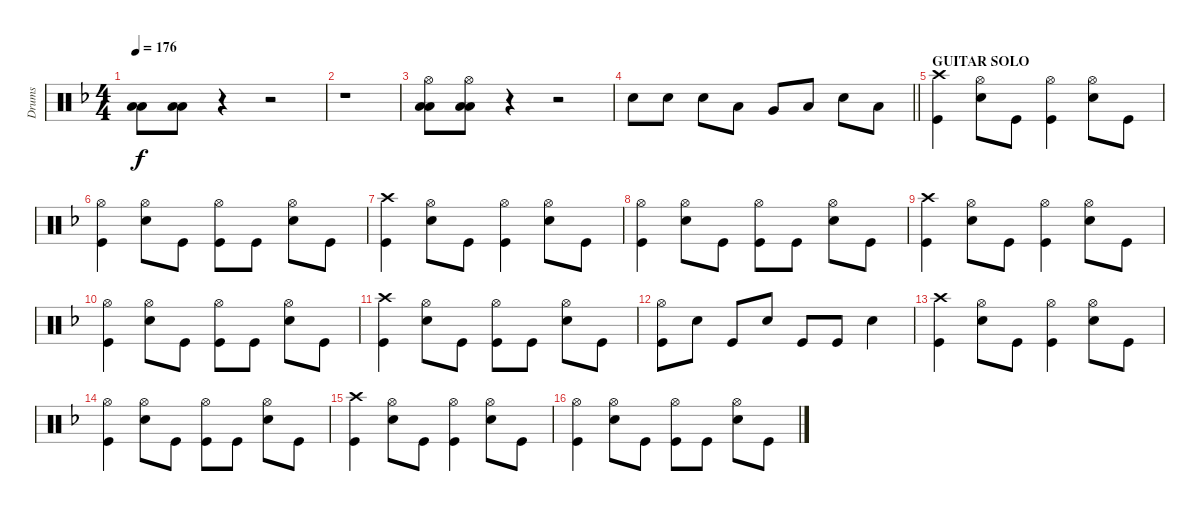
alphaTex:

\track ("Drums" "Drums") {instrument percussion}
\staff {score}
\articulation defaults
\ts (4 4)
\tempo 176
\clef neutral
\ks f
("Low Tom (hit)" "Low Floor Tom (hit)").8{dy f beam Down} ("Low Tom (hit)" "Low Floor Tom (hit)").8{beam Down} r.4 r.2 |
r.1 |
("Hi-Hat (open)" "Low Tom (hit)" "Low Floor Tom (hit)").8 ("Hi-Hat (open)" "Low Tom (hit)" "Low Floor Tom (hit)").8 r.4 r.2 |
\barLineRight lightlight "Snare (hit) 2".8 "Snare (hit) 2".8 "Snare (hit) 2".8 "Low Tom (hit)".8 "Very Low Tom (hit)".8 "Low Floor Tom (hit)".8 "Snare (hit) 2".8 "Low Floor Tom (hit)".8
|
\section ("" "GUITAR SOLO")
("Crash high (hit)" "Kick (hit)").4 ("Hi-Hat (open)" "Snare (hit) 2").8 "Kick (hit)".8 ("Hi-Hat (open)" "Kick (hit)").4 ("Hi-Hat (open)" "Snare (hit) 2").8 "Kick (hit)".8 |
("Hi-Hat (open)" "Kick (hit)").4 ("Hi-Hat (open)" "Snare (hit) 2").8 "Kick (hit)".8 ("Hi-Hat (open)" "Kick (hit)").8 "Kick (hit)".8 ("Hi-Hat (open)" "Snare (hit) 2").8 "Kick (hit)".8 |
("Crash high (hit)" "Kick (hit)").4 ("Hi-Hat (open)" "Snare (hit) 2").8 "Kick (hit)".8 ("Hi-Hat (open)" "Kick (hit)").4 ("Hi-Hat (open)" "Snare (hit) 2").8 "Kick (hit)".8 |
("Hi-Hat (open)" "Kick (hit)").4 ("Hi-Hat (open)" "Snare (hit) 2").8 "Kick (hit)".8 ("Hi-Hat (open)" "Kick (hit)").8 "Kick (hit)".8 ("Hi-Hat (open)" "Snare (hit) 2").8 "Kick (hit)".8 |
("Crash high (hit)" "Kick (hit)").4 ("Hi-Hat (open)" "Snare (hit) 2").8 "Kick (hit)".8 ("Hi-Hat (open)" "Kick (hit)").4 ("Hi-Hat (open)" "Snare (hit) 2").8 "Kick (hit)".8 |
("Hi-Hat (open)" "Kick (hit)").4 ("Hi-Hat (open)" "Snare (hit) 2").8 "Kick (hit)".8 ("Hi-Hat (open)" "Kick (hit)").8 "Kick (hit)".8 ("Hi-Hat (open)" "Snare (hit) 2").8 "Kick (hit)".8 |
("Crash high (hit)" "Kick (hit)").4 ("Hi-Hat (open)" "Snare (hit) 2").8 "Kick (hit)".8 ("Hi-Hat (open)" "Kick (hit)").8 "Kick (hit)".8 ("Hi-Hat (open)" "Snare (hit) 2").8 "Kick (hit)".8 |
("Hi-Hat (open)" "Kick (hit)").8 "Snare (hit) 2".8 "Kick (hit)".8 "Snare (hit) 2".8 "Kick (hit)".8 "Kick (hit)".8 "Snare (hit) 2".4 |
("Crash high (hit)" "Kick (hit)").4 ("Hi-Hat (open)" "Snare (hit) 2").8 "Kick (hit)".8 ("Hi-Hat (open)" "Kick (hit)").4 ("Hi-Hat (open)" "Snare (hit) 2").8 "Kick (hit)".8 |
("Hi-Hat (open)" "Kick (hit)").4 ("Hi-Hat (open)" "Snare (hit) 2").8 "Kick (hit)".8 ("Hi-Hat (open)" "Kick (hit)").8 "Kick (hit)".8 ("Hi-Hat (open)" "Snare (hit) 2").8 "Kick (hit)".8 |
("Crash high (hit)" "Kick (hit)").4 ("Hi-Hat (open)" "Snare (hit) 2").8 "Kick (hit)".8 ("Hi-Hat (open)" "Kick (hit)").4 ("Hi-Hat (open)" "Snare (hit) 2").8 "Kick (hit)".8 |
("Hi-Hat (open)" "Kick (hit)").4 ("Hi-Hat (open)" "Snare (hit) 2").8 "Kick (hit)".8 ("Hi-Hat (open)" "Kick (hit)").8 "Kick (hit)".8 ("Hi-Hat (open)" "Snare (hit) 2").8 "Kick (hit)".8
